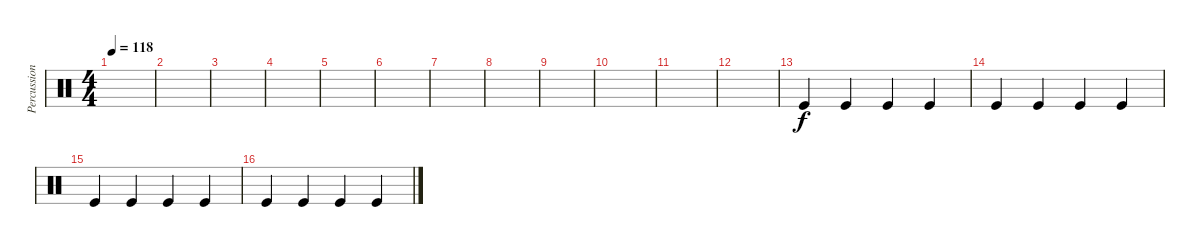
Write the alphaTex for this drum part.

\track ("Percussion" "Percussion") {instrument percussion}
\staff {score}
\articulation defaults
\ts (4 4)
\tempo 118
\clef neutral
\ks c
|
|
|
|
|
|
|
|
|
|
|
|
"Kick (hit)".4 "Kick (hit)".4 "Kick (hit)".4 "Kick (hit)".4 |
"Kick (hit)".4 "Kick (hit)".4 "Kick (hit)".4 "Kick (hit)".4 |
"Kick (hit)".4 "Kick (hit)".4 "Kick (hit)".4 "Kick (hit)".4 |
"Kick (hit)".4 "Kick (hit)".4 "Kick (hit)".4 "Kick (hit)".4
